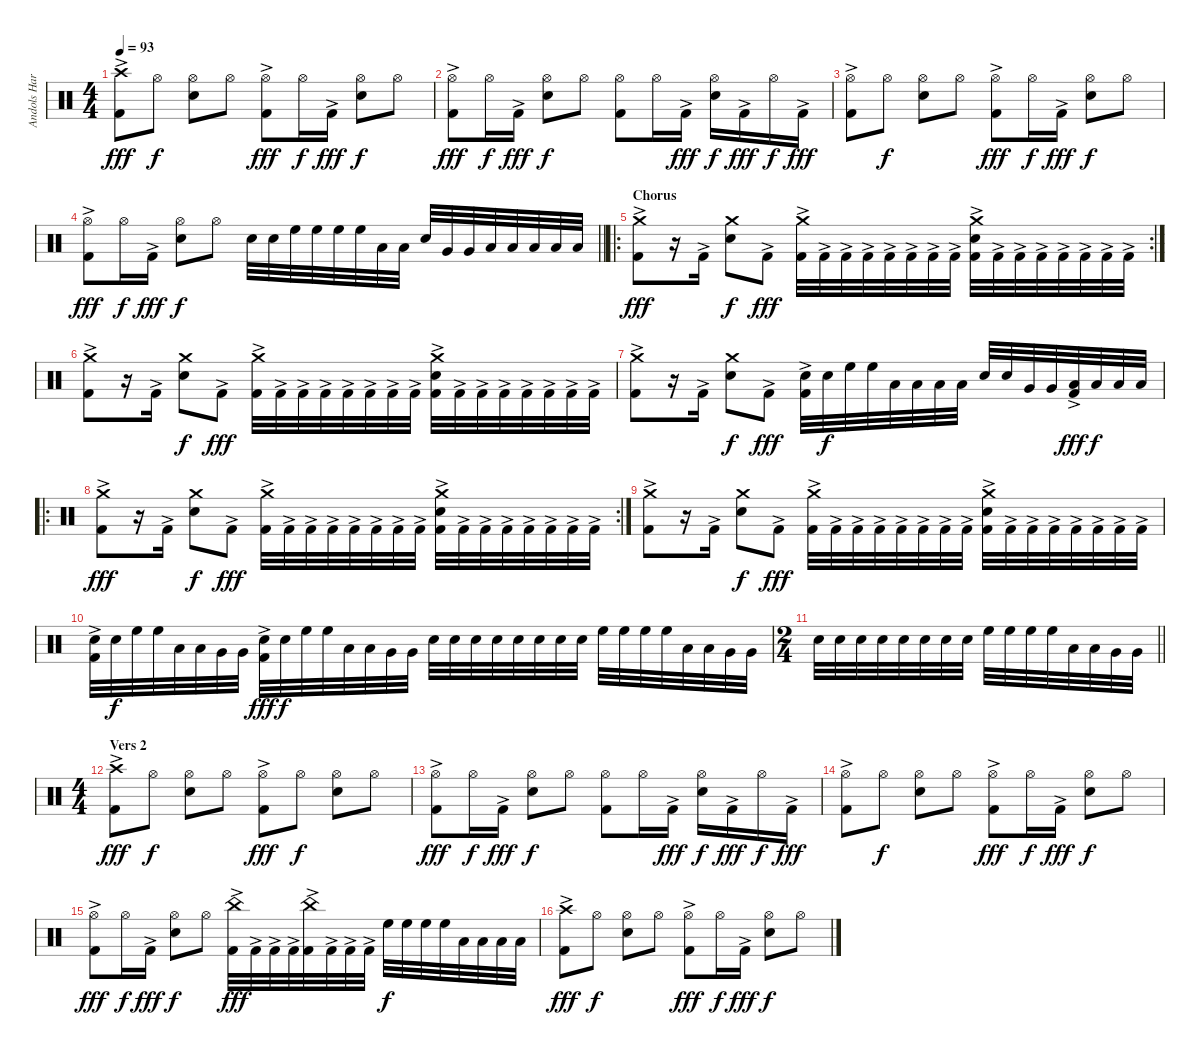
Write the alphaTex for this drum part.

\track ("Andols Harrick" "Andols Har") {instrument percussion}
\staff {score}
\articulation defaults
\ts (4 4)
\tempo 93
\clef neutral
\ks c
("Crash high (hit)" "Kick (hit) 2"{ac}).8{dy fff} "Hi-Hat (open)".8{dy f} ("Hi-Hat (open)" "Electric Snare (hit)").8 "Hi-Hat (open)".8 ("Hi-Hat (open)" "Kick (hit) 2"{ac}).8{dy fff} "Hi-Hat (open)".16{dy f} "Kick (hit) 2"{ac}.16{dy fff} ("Hi-Hat (open)" "Electric Snare (hit)").8{dy f} "Hi-Hat (open)".8 |
("Hi-Hat (open)" "Kick (hit) 2"{ac}).8{dy fff} "Hi-Hat (open)".16{dy f} "Kick (hit) 2"{ac}.16{dy fff} ("Hi-Hat (open)" "Electric Snare (hit)").8{dy f} "Hi-Hat (open)".8 ("Hi-Hat (open)" "Kick (hit) 2").8 "Hi-Hat (open)".16 "Kick (hit) 2"{ac}.16{dy fff} ("Hi-Hat (open)" "Electric Snare (hit)").16{dy f} "Kick (hit) 2"{ac}.16{dy fff} "Hi-Hat (open)".16{dy f} "Kick (hit) 2"{ac}.16{dy fff} |
("Hi-Hat (open)" "Kick (hit) 2"{ac}).8 "Hi-Hat (open)".8{dy f} ("Hi-Hat (open)" "Electric Snare (hit)").8 "Hi-Hat (open)".8 ("Hi-Hat (open)" "Kick (hit) 2"{ac}).8{dy fff} "Hi-Hat (open)".16{dy f} "Kick (hit) 2"{ac}.16{dy fff} ("Hi-Hat (open)" "Electric Snare (hit)").8{dy f} "Hi-Hat (open)".8 |
\barLineRight lightlight
("Hi-Hat (open)" "Kick (hit) 2"{ac}).8{dy fff} "Hi-Hat (open)".16{dy f} "Kick (hit) 2"{ac}.16{dy fff} ("Hi-Hat (open)" "Electric Snare (hit)").8{dy f} "Hi-Hat (open)".8 "Electric Snare (hit)".32 "Electric Snare (hit)".32 "High Floor Tom (hit)".32 "High Floor Tom (hit)".32 "High Floor Tom (hit)".32 "High Floor Tom (hit)".32 "Low Tom (hit)".32 "Low Tom (hit)".32 "Electric Snare (hit)".32 "Very Low Tom (hit)".32 "Very Low Tom (hit)".32 "Low Floor Tom (hit)".32 "Low Floor Tom (hit)".32 "Low Floor Tom (hit)".32 "Low Floor Tom (hit)".32 "Low Floor Tom (hit)".32 |
\ro
\rc 2
\section ("" "Chorus")
("Crash medium (hit)" "Kick (hit) 2"{ac}).8{dy fff} r.16 "Kick (hit) 2"{ac}.16 ("Crash medium (hit)" "Electric Snare (hit)").8{dy f} "Kick (hit) 2"{ac}.8{dy fff} ("Crash medium (hit)" "Kick (hit) 2"{ac}).32 "Kick (hit) 2"{ac}.32 "Kick (hit) 2"{ac}.32 "Kick (hit) 2"{ac}.32 "Kick (hit) 2"{ac}.32 "Kick (hit) 2"{ac}.32 "Kick (hit) 2"{ac}.32 "Kick (hit) 2"{ac}.32 ("Crash medium (hit)" "Electric Snare (hit)" "Kick (hit) 2"{ac}).32 "Kick (hit) 2"{ac}.32 "Kick (hit) 2"{ac}.32 "Kick (hit) 2"{ac}.32 "Kick (hit) 2"{ac}.32 "Kick (hit) 2"{ac}.32 "Kick (hit) 2"{ac}.32 "Kick (hit) 2"{ac}.32 |
("Crash medium (hit)" "Kick (hit) 2"{ac}).8 r.16 "Kick (hit) 2"{ac}.16 ("Crash medium (hit)" "Electric Snare (hit)").8{dy f} "Kick (hit) 2"{ac}.8{dy fff} ("Crash medium (hit)" "Kick (hit) 2"{ac}).32 "Kick (hit) 2"{ac}.32 "Kick (hit) 2"{ac}.32 "Kick (hit) 2"{ac}.32 "Kick (hit) 2"{ac}.32 "Kick (hit) 2"{ac}.32 "Kick (hit) 2"{ac}.32 "Kick (hit) 2"{ac}.32 ("Crash medium (hit)" "Electric Snare (hit)" "Kick (hit) 2"{ac}).32 "Kick (hit) 2"{ac}.32 "Kick (hit) 2"{ac}.32 "Kick (hit) 2"{ac}.32 "Kick (hit) 2"{ac}.32 "Kick (hit) 2"{ac}.32 "Kick (hit) 2"{ac}.32 "Kick (hit) 2"{ac}.32 |
("Crash medium (hit)" "Kick (hit) 2"{ac}).8 r.16 "Kick (hit) 2"{ac}.16 ("Crash medium (hit)" "Electric Snare (hit)").8{dy f} "Kick (hit) 2"{ac}.8{dy fff} ("Electric Snare (hit)" "Kick (hit) 2"{ac}).32 "Electric Snare (hit)".32{dy f} "High Floor Tom (hit)".32 "High Floor Tom (hit)".32 "Low Tom (hit)".32 "Low Tom (hit)".32 "Low Tom (hit)".32 "Low Tom (hit)".32 "Electric Snare (hit)".32 "Electric Snare (hit)".32 "Very Low Tom (hit)".32 "Very Low Tom (hit)".32 ("Low Floor Tom (hit)" "Kick (hit) 2"{ac}).32{dy fff} "Low Floor Tom (hit)".32{dy f} "Low Floor Tom (hit)".32 "Low Floor Tom (hit)".32 |
\ro
\rc 2
("Crash medium (hit)" "Kick (hit) 2"{ac}).8{dy fff} r.16 "Kick (hit) 2"{ac}.16 ("Crash medium (hit)" "Electric Snare (hit)").8{dy f} "Kick (hit) 2"{ac}.8{dy fff} ("Crash medium (hit)" "Kick (hit) 2"{ac}).32 "Kick (hit) 2"{ac}.32 "Kick (hit) 2"{ac}.32 "Kick (hit) 2"{ac}.32 "Kick (hit) 2"{ac}.32 "Kick (hit) 2"{ac}.32 "Kick (hit) 2"{ac}.32 "Kick (hit) 2"{ac}.32 ("Crash medium (hit)" "Electric Snare (hit)" "Kick (hit) 2"{ac}).32 "Kick (hit) 2"{ac}.32 "Kick (hit) 2"{ac}.32 "Kick (hit) 2"{ac}.32 "Kick (hit) 2"{ac}.32 "Kick (hit) 2"{ac}.32 "Kick (hit) 2"{ac}.32 "Kick (hit) 2"{ac}.32 |
("Crash medium (hit)" "Kick (hit) 2"{ac}).8 r.16 "Kick (hit) 2"{ac}.16 ("Crash medium (hit)" "Electric Snare (hit)").8{dy f} "Kick (hit) 2"{ac}.8{dy fff} ("Crash medium (hit)" "Kick (hit) 2"{ac}).32 "Kick (hit) 2"{ac}.32 "Kick (hit) 2"{ac}.32 "Kick (hit) 2"{ac}.32 "Kick (hit) 2"{ac}.32 "Kick (hit) 2"{ac}.32 "Kick (hit) 2"{ac}.32 "Kick (hit) 2"{ac}.32 ("Crash medium (hit)" "Electric Snare (hit)" "Kick (hit) 2"{ac}).32 "Kick (hit) 2"{ac}.32 "Kick (hit) 2"{ac}.32 "Kick (hit) 2"{ac}.32 "Kick (hit) 2"{ac}.32 "Kick (hit) 2"{ac}.32 "Kick (hit) 2"{ac}.32 "Kick (hit) 2"{ac}.32 |
("Electric Snare (hit)" "Kick (hit) 2"{ac}).32 "Electric Snare (hit)".32{dy f} "High Floor Tom (hit)".32 "High Floor Tom (hit)".32 "Low Tom (hit)".32 "Low Tom (hit)".32 "Very Low Tom (hit)".32 "Very Low Tom (hit)".32 ("Electric Snare (hit)" "Kick (hit) 2"{ac}).32{dy fff} "Electric Snare (hit)".32{dy f} "High Floor Tom (hit)".32 "High Floor Tom (hit)".32 "Low Tom (hit)".32 "Low Tom (hit)".32 "Very Low Tom (hit)".32 "Very Low Tom (hit)".32 "Electric Snare (hit)".32 "Electric Snare (hit)".32 "Electric Snare (hit)".32 "Electric Snare (hit)".32 "Electric Snare (hit)".32 "Electric Snare (hit)".32 "Electric Snare (hit)".32 "Electric Snare (hit)".32 "High Floor Tom (hit)".32 "High Floor Tom (hit)".32 "High Floor Tom (hit)".32 "High Floor Tom (hit)".32 "Low Tom (hit)".32 "Low Tom (hit)".32 "Very Low Tom (hit)".32 "Very Low Tom (hit)".32 |
\ts (2 4)
\barLineRight lightlight "Electric Snare (hit)".32 "Electric Snare (hit)".32 "Electric Snare (hit)".32 "Electric Snare (hit)".32 "Electric Snare (hit)".32 "Electric Snare (hit)".32 "Electric Snare (hit)".32 "Electric Snare (hit)".32 "High Floor Tom (hit)".32 "High Floor Tom (hit)".32 "High Floor Tom (hit)".32 "High Floor Tom (hit)".32 "Low Tom (hit)".32 "Low Tom (hit)".32 "Very Low Tom (hit)".32 "Very Low Tom (hit)".32
|
\ts (4 4)
\section ("" "Vers 2")
("Crash high (hit)" "Kick (hit) 2"{ac}).8{dy fff} "Hi-Hat (open)".8{dy f} ("Hi-Hat (open)" "Electric Snare (hit)").8 "Hi-Hat (open)".8 ("Hi-Hat (open)" "Kick (hit) 2"{ac}).8{dy fff} "Hi-Hat (open)".8{dy f} ("Hi-Hat (open)" "Electric Snare (hit)").8 "Hi-Hat (open)".8 |
("Hi-Hat (open)" "Kick (hit) 2"{ac}).8{dy fff} "Hi-Hat (open)".16{dy f} "Kick (hit) 2"{ac}.16{dy fff} ("Hi-Hat (open)" "Electric Snare (hit)").8{dy f} "Hi-Hat (open)".8 ("Hi-Hat (open)" "Kick (hit) 2").8 "Hi-Hat (open)".16 "Kick (hit) 2"{ac}.16{dy fff} ("Hi-Hat (open)" "Electric Snare (hit)").16{dy f} "Kick (hit) 2"{ac}.16{dy fff} "Hi-Hat (open)".16{dy f} "Kick (hit) 2"{ac}.16{dy fff} |
("Hi-Hat (open)" "Kick (hit) 2"{ac}).8 "Hi-Hat (open)".8{dy f} ("Hi-Hat (open)" "Electric Snare (hit)").8 "Hi-Hat (open)".8 ("Hi-Hat (open)" "Kick (hit) 2"{ac}).8{dy fff} "Hi-Hat (open)".16{dy f} "Kick (hit) 2"{ac}.16{dy fff} ("Hi-Hat (open)" "Electric Snare (hit)").8{dy f} "Hi-Hat (open)".8 |
("Hi-Hat (open)" "Kick (hit) 2"{ac}).8{dy fff} "Hi-Hat (open)".16{dy f} "Kick (hit) 2"{ac}.16{dy fff} ("Hi-Hat (open)" "Electric Snare (hit)").8{dy f} "Hi-Hat (open)".8 ("China (hit)" "Kick (hit) 2"{ac}).32{dy fff} "Kick (hit) 2"{ac}.32 "Kick (hit) 2"{ac}.32 "Kick (hit) 2"{ac}.32 ("China (hit)" "Kick (hit) 2"{ac}).32 "Kick (hit) 2"{ac}.32 "Kick (hit) 2"{ac}.32 "Kick (hit) 2"{ac}.32 "High Floor Tom (hit)".32{dy f} "High Floor Tom (hit)".32 "High Floor Tom (hit)".32 "High Floor Tom (hit)".32 "Low Tom (hit)".32 "Low Tom (hit)".32 "Low Tom (hit)".32 "Low Tom (hit)".32 |
("Crash high (hit)" "Kick (hit) 2"{ac}).8{dy fff} "Hi-Hat (open)".8{dy f} ("Hi-Hat (open)" "Electric Snare (hit)").8 "Hi-Hat (open)".8 ("Hi-Hat (open)" "Kick (hit) 2"{ac}).8{dy fff} "Hi-Hat (open)".16{dy f} "Kick (hit) 2"{ac}.16{dy fff} ("Hi-Hat (open)" "Electric Snare (hit)").8{dy f} "Hi-Hat (open)".8
